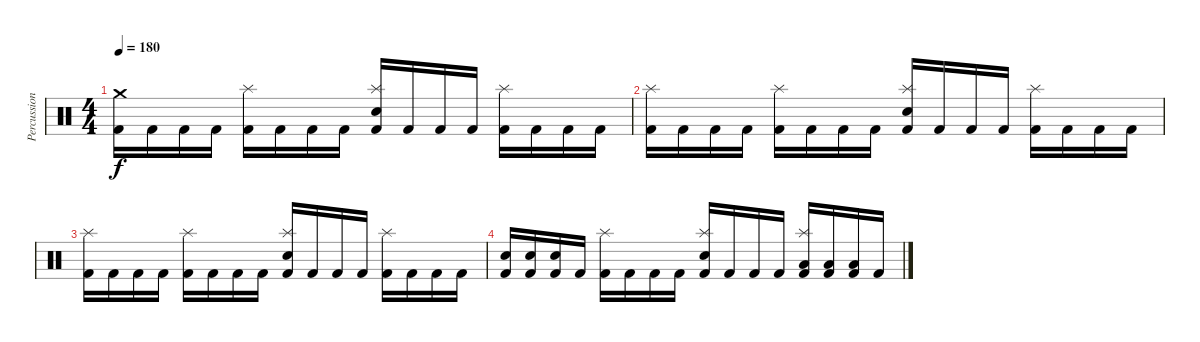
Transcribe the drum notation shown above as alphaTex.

\track ("Percussion" "Percussion") {instrument percussion}
\staff {score}
\articulation defaults
\ts (4 4)
\tempo 180
\clef neutral
\ks c
("Kick (hit) 2" "Crash medium (hit)").16{dy f} "Kick (hit) 2".16 "Kick (hit) 2".16 "Kick (hit) 2".16 ("Kick (hit) 2" "Splash (hit)").16 "Kick (hit) 2".16 "Kick (hit) 2".16 "Kick (hit) 2".16 ("Kick (hit) 2" "Snare (hit) 2" "Splash (hit)").16 "Kick (hit) 2".16 "Kick (hit) 2".16 "Kick (hit) 2".16 ("Kick (hit) 2" "Splash (hit)").16 "Kick (hit) 2".16 "Kick (hit) 2".16 "Kick (hit) 2".16 |
("Kick (hit) 2" "Splash (hit)").16 "Kick (hit) 2".16 "Kick (hit) 2".16 "Kick (hit) 2".16 ("Kick (hit) 2" "Splash (hit)").16 "Kick (hit) 2".16 "Kick (hit) 2".16 "Kick (hit) 2".16 ("Kick (hit) 2" "Snare (hit) 2" "Splash (hit)").16 "Kick (hit) 2".16 "Kick (hit) 2".16 "Kick (hit) 2".16 ("Kick (hit) 2" "Splash (hit)").16 "Kick (hit) 2".16 "Kick (hit) 2".16 "Kick (hit) 2".16 |
("Kick (hit) 2" "Splash (hit)").16 "Kick (hit) 2".16 "Kick (hit) 2".16 "Kick (hit) 2".16 ("Kick (hit) 2" "Splash (hit)").16 "Kick (hit) 2".16 "Kick (hit) 2".16 "Kick (hit) 2".16 ("Kick (hit) 2" "Snare (hit) 2" "Splash (hit)").16 "Kick (hit) 2".16 "Kick (hit) 2".16 "Kick (hit) 2".16 ("Kick (hit) 2" "Splash (hit)").16 "Kick (hit) 2".16 "Kick (hit) 2".16 "Kick (hit) 2".16 |
("Kick (hit) 2" "Snare (hit) 2").16 ("Kick (hit) 2" "Snare (hit) 2").16 ("Kick (hit) 2" "Snare (hit) 2").16 "Kick (hit) 2".16 ("Kick (hit) 2" "Splash (hit)").16 "Kick (hit) 2".16 "Kick (hit) 2".16 "Kick (hit) 2".16 ("Kick (hit) 2" "Snare (hit) 2" "Splash (hit)").16 "Kick (hit) 2".16 "Kick (hit) 2".16 "Kick (hit) 2".16 ("Kick (hit) 2" "Splash (hit)" "Low Tom (hit)").16 ("Kick (hit) 2" "Low Tom (hit)").16 ("Kick (hit) 2" "Low Tom (hit)").16 "Kick (hit) 2".16
